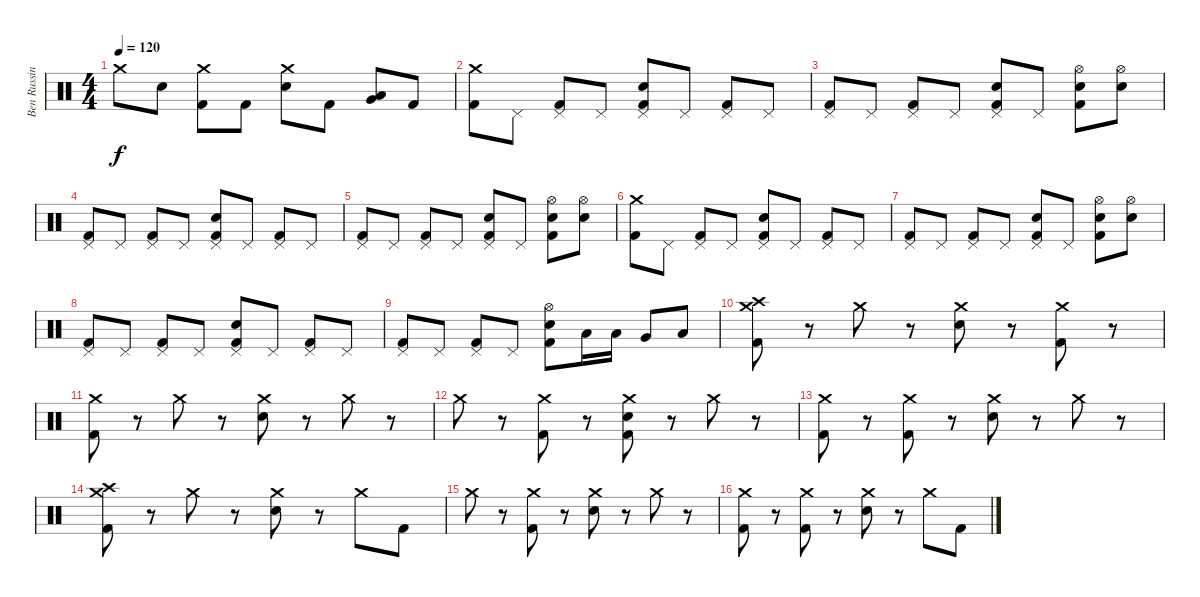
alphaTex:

\track ("Ben Russin" "Ben Russin") {instrument percussion}
\staff {score}
\articulation defaults
\ts (4 4)
\tempo 120
\clef neutral
\ks c "Crash medium (hit)".8{dy f} "Snare (hit) 2".8
("Kick (hit) 2" "Crash medium (hit)").8 "Kick (hit) 2".8 ("Snare (hit) 2" "Crash medium (hit)").8 "Kick (hit) 2".8 ("Very Low Tom (hit)" "Low Floor Tom (hit)").8 "Kick (hit) 2".8 |
("Kick (hit) 2" "Crash medium (hit)").8 "Pedal Hi-Hat (hit)".8 ("Kick (hit) 2" "Pedal Hi-Hat (hit)").8 "Pedal Hi-Hat (hit)".8 ("Kick (hit) 2" "Snare (hit) 2" "Pedal Hi-Hat (hit)").8 "Pedal Hi-Hat (hit)".8 ("Kick (hit) 2" "Pedal Hi-Hat (hit)").8 "Pedal Hi-Hat (hit)".8 |
("Kick (hit) 2" "Pedal Hi-Hat (hit)").8 "Pedal Hi-Hat (hit)".8 ("Kick (hit) 2" "Pedal Hi-Hat (hit)").8 "Pedal Hi-Hat (hit)".8 ("Kick (hit) 2" "Snare (hit) 2" "Pedal Hi-Hat (hit)").8 "Pedal Hi-Hat (hit)".8 ("Kick (hit) 2" "Snare (hit) 2" "Hi-Hat (open)").8 ("Snare (hit) 2" "Hi-Hat (open)").8 |
("Kick (hit) 2" "Pedal Hi-Hat (hit)").8 "Pedal Hi-Hat (hit)".8 ("Kick (hit) 2" "Pedal Hi-Hat (hit)").8 "Pedal Hi-Hat (hit)".8 ("Kick (hit) 2" "Snare (hit) 2" "Pedal Hi-Hat (hit)").8 "Pedal Hi-Hat (hit)".8 ("Kick (hit) 2" "Pedal Hi-Hat (hit)").8 "Pedal Hi-Hat (hit)".8 |
("Kick (hit) 2" "Pedal Hi-Hat (hit)").8 "Pedal Hi-Hat (hit)".8 ("Kick (hit) 2" "Pedal Hi-Hat (hit)").8 "Pedal Hi-Hat (hit)".8 ("Kick (hit) 2" "Snare (hit) 2" "Pedal Hi-Hat (hit)").8 "Pedal Hi-Hat (hit)".8 ("Kick (hit) 2" "Snare (hit) 2" "Hi-Hat (open)").8 ("Snare (hit) 2" "Hi-Hat (open)").8 |
("Kick (hit) 2" "Crash medium (hit)").8 "Pedal Hi-Hat (hit)".8 ("Kick (hit) 2" "Pedal Hi-Hat (hit)").8 "Pedal Hi-Hat (hit)".8 ("Kick (hit) 2" "Snare (hit) 2" "Pedal Hi-Hat (hit)").8 "Pedal Hi-Hat (hit)".8 ("Kick (hit) 2" "Pedal Hi-Hat (hit)").8 "Pedal Hi-Hat (hit)".8 |
("Kick (hit) 2" "Pedal Hi-Hat (hit)").8 "Pedal Hi-Hat (hit)".8 ("Kick (hit) 2" "Pedal Hi-Hat (hit)").8 "Pedal Hi-Hat (hit)".8 ("Kick (hit) 2" "Snare (hit) 2" "Pedal Hi-Hat (hit)").8 "Pedal Hi-Hat (hit)".8 ("Kick (hit) 2" "Snare (hit) 2" "Hi-Hat (open)").8 ("Snare (hit) 2" "Hi-Hat (open)").8 |
("Kick (hit) 2" "Pedal Hi-Hat (hit)").8 "Pedal Hi-Hat (hit)".8 ("Kick (hit) 2" "Pedal Hi-Hat (hit)").8 "Pedal Hi-Hat (hit)".8 ("Kick (hit) 2" "Snare (hit) 2" "Pedal Hi-Hat (hit)").8 "Pedal Hi-Hat (hit)".8 ("Kick (hit) 2" "Pedal Hi-Hat (hit)").8 "Pedal Hi-Hat (hit)".8 |
("Kick (hit) 2" "Pedal Hi-Hat (hit)").8 "Pedal Hi-Hat (hit)".8 ("Kick (hit) 2" "Pedal Hi-Hat (hit)").8 "Pedal Hi-Hat (hit)".8 ("Kick (hit) 2" "Snare (hit) 2" "Hi-Hat (open)").8 "Low Tom (hit)".16 "Low Tom (hit)".16 "Very Low Tom (hit)".8 "Low Floor Tom (hit)".8 |
("Kick (hit) 2" "Crash high (hit)" "Crash medium (hit)").8 r.8 "Crash medium (hit)".8 r.8 ("Snare (hit) 2" "Crash medium (hit)").8 r.8 ("Kick (hit) 2" "Crash medium (hit)").8 r.8 |
("Kick (hit) 2" "Crash medium (hit)").8 r.8 "Crash medium (hit)".8 r.8 ("Snare (hit) 2" "Crash medium (hit)").8 r.8 "Crash medium (hit)".8 r.8 |
"Crash medium (hit)".8 r.8 ("Kick (hit) 2" "Crash medium (hit)").8 r.8 ("Kick (hit) 2" "Snare (hit) 2" "Crash medium (hit)").8 r.8 "Crash medium (hit)".8 r.8 |
("Kick (hit) 2" "Crash medium (hit)").8 r.8 ("Kick (hit) 2" "Crash medium (hit)").8 r.8 ("Snare (hit) 2" "Crash medium (hit)").8 r.8 "Crash medium (hit)".8 r.8 |
("Kick (hit) 2" "Crash high (hit)" "Crash medium (hit)").8 r.8 "Crash medium (hit)".8 r.8 ("Snare (hit) 2" "Crash medium (hit)").8 r.8 "Crash medium (hit)".8 "Kick (hit) 2".8 |
"Crash medium (hit)".8 r.8 ("Kick (hit) 2" "Crash medium (hit)").8 r.8 ("Snare (hit) 2" "Crash medium (hit)").8 r.8 "Crash medium (hit)".8 r.8 |
("Kick (hit) 2" "Crash medium (hit)").8 r.8 ("Kick (hit) 2" "Crash medium (hit)").8 r.8 ("Snare (hit) 2" "Crash medium (hit)").8 r.8 "Crash medium (hit)".8 "Kick (hit) 2".8
